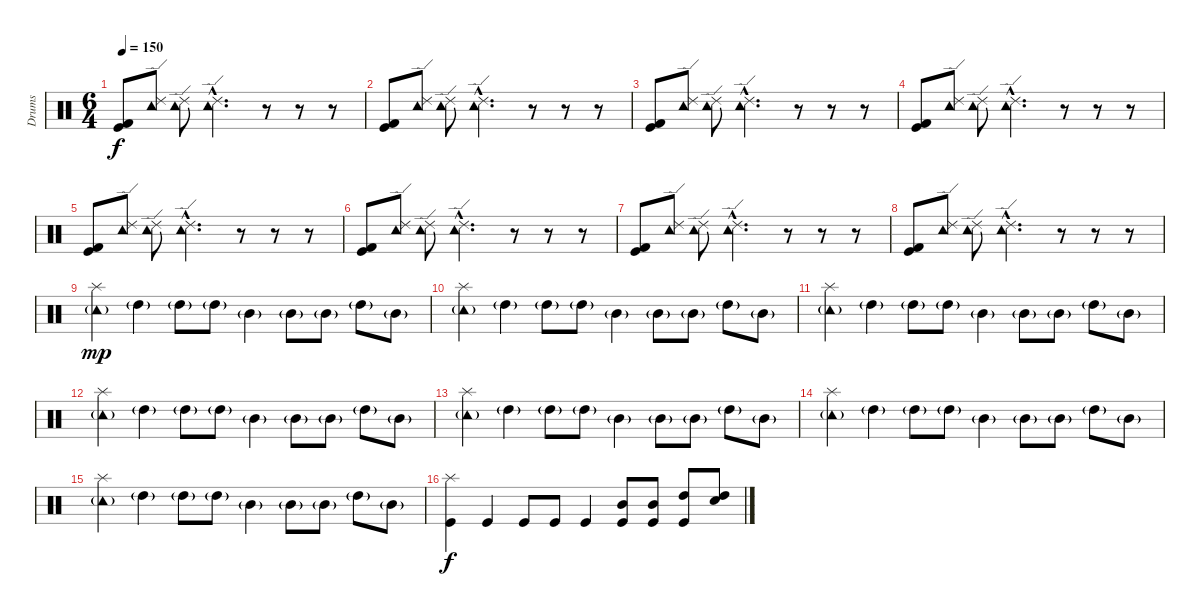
\track ("Drums" "Drums") {instrument percussion}
\staff {score}
\articulation defaults
\ts (6 4)
\tempo 150
\clef neutral
\ks c
("Kick (hit)" "Kick (hit) 2").8{dy f} ("Ride (edge) 2" "Tambourine (hit)").8 ("Ride (edge) 2" "Tambourine (hit)").8 ("Ride (edge) 2"{hac} "Tambourine (hit)"{hac}).2{d} r.8 r.8 r.8 |
("Kick (hit)" "Kick (hit) 2").8 ("Ride (edge) 2" "Tambourine (hit)").8 ("Ride (edge) 2" "Tambourine (hit)").8 ("Ride (edge) 2"{hac} "Tambourine (hit)"{hac}).2{d} r.8 r.8 r.8 |
("Kick (hit)" "Kick (hit) 2").8 ("Ride (edge) 2" "Tambourine (hit)").8 ("Ride (edge) 2" "Tambourine (hit)").8 ("Ride (edge) 2"{hac} "Tambourine (hit)"{hac}).2{d} r.8 r.8 r.8 |
("Kick (hit)" "Kick (hit) 2").8 ("Ride (edge) 2" "Tambourine (hit)").8 ("Ride (edge) 2" "Tambourine (hit)").8 ("Ride (edge) 2"{hac} "Tambourine (hit)"{hac}).2{d} r.8 r.8 r.8 |
("Kick (hit)" "Kick (hit) 2").8 ("Ride (edge) 2" "Tambourine (hit)").8 ("Ride (edge) 2" "Tambourine (hit)").8 ("Ride (edge) 2"{hac} "Tambourine (hit)"{hac}).2{d} r.8 r.8 r.8 |
("Kick (hit)" "Kick (hit) 2").8 ("Ride (edge) 2" "Tambourine (hit)").8 ("Ride (edge) 2" "Tambourine (hit)").8 ("Ride (edge) 2"{hac} "Tambourine (hit)"{hac}).2{d} r.8 r.8 r.8 |
("Kick (hit)" "Kick (hit) 2").8 ("Ride (edge) 2" "Tambourine (hit)").8 ("Ride (edge) 2" "Tambourine (hit)").8 ("Ride (edge) 2"{hac} "Tambourine (hit)"{hac}).2{d} r.8 r.8 r.8 |
("Kick (hit)" "Kick (hit) 2").8 ("Ride (edge) 2" "Tambourine (hit)").8 ("Ride (edge) 2" "Tambourine (hit)").8 ("Ride (edge) 2"{hac} "Tambourine (hit)"{hac}).2{d} r.8 r.8 r.8 |
("Splash (hit)" "Tambourine (hit)"{g}).4{dy mp volume 15} "High Tom (hit)"{g}.4 "High Tom (hit)"{g}.8 "High Tom (hit)"{g}.8 "Mid Tom (hit)"{g}.4 "Mid Tom (hit)"{g}.8 "Mid Tom (hit)"{g}.8 "High Tom (hit)"{g}.8 "Mid Tom (hit)"{g}.8 |
("Splash (hit)" "Tambourine (hit)"{g}).4 "High Tom (hit)"{g}.4 "High Tom (hit)"{g}.8 "High Tom (hit)"{g}.8 "Mid Tom (hit)"{g}.4 "Mid Tom (hit)"{g}.8 "Mid Tom (hit)"{g}.8 "High Tom (hit)"{g}.8 "Mid Tom (hit)"{g}.8 |
("Splash (hit)" "Tambourine (hit)"{g}).4 "High Tom (hit)"{g}.4 "High Tom (hit)"{g}.8 "High Tom (hit)"{g}.8 "Mid Tom (hit)"{g}.4 "Mid Tom (hit)"{g}.8 "Mid Tom (hit)"{g}.8 "High Tom (hit)"{g}.8 "Mid Tom (hit)"{g}.8 |
("Splash (hit)" "Tambourine (hit)"{g}).4 "High Tom (hit)"{g}.4 "High Tom (hit)"{g}.8 "High Tom (hit)"{g}.8 "Mid Tom (hit)"{g}.4 "Mid Tom (hit)"{g}.8 "Mid Tom (hit)"{g}.8 "High Tom (hit)"{g}.8 "Mid Tom (hit)"{g}.8 |
("Splash (hit)" "Tambourine (hit)"{g}).4 "High Tom (hit)"{g}.4 "High Tom (hit)"{g}.8 "High Tom (hit)"{g}.8 "Mid Tom (hit)"{g}.4 "Mid Tom (hit)"{g}.8 "Mid Tom (hit)"{g}.8 "High Tom (hit)"{g}.8 "Mid Tom (hit)"{g}.8 |
("Splash (hit)" "Tambourine (hit)"{g}).4 "High Tom (hit)"{g}.4 "High Tom (hit)"{g}.8 "High Tom (hit)"{g}.8 "Mid Tom (hit)"{g}.4 "Mid Tom (hit)"{g}.8 "Mid Tom (hit)"{g}.8 "High Tom (hit)"{g}.8 "Mid Tom (hit)"{g}.8 |
("Splash (hit)" "Tambourine (hit)"{g}).4 "High Tom (hit)"{g}.4 "High Tom (hit)"{g}.8 "High Tom (hit)"{g}.8 "Mid Tom (hit)"{g}.4 "Mid Tom (hit)"{g}.8 "Mid Tom (hit)"{g}.8 "High Tom (hit)"{g}.8 "Mid Tom (hit)"{g}.8 |
("Kick (hit)" "Splash (hit)").4{dy f} "Kick (hit)".4 "Kick (hit)".8 "Kick (hit)".8 "Kick (hit)".4 ("Mid Tom (hit)" "Kick (hit)").8 ("Mid Tom (hit)" "Kick (hit)").8 ("High Tom (hit)" "Kick (hit)").8 ("High Tom (hit)" "Snare (hit) 2").8
